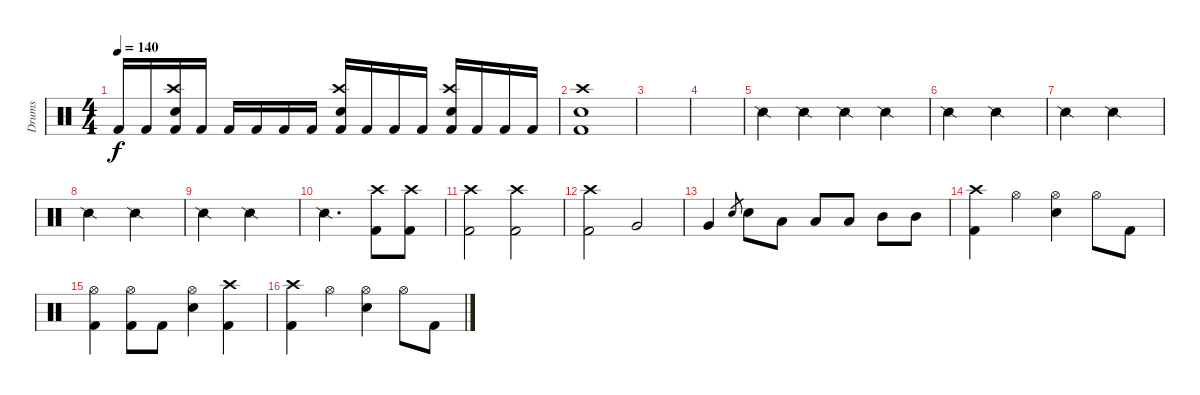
\track ("Drums" "Drums") {instrument percussion}
\staff {score}
\articulation defaults
\ts (4 4)
\tempo 140
\clef neutral
\ks c "Kick (hit) 2".16{dy f} "Kick (hit) 2".16
("Crash high (hit)" "Electric Snare (hit)" "Kick (hit) 2").16 "Kick (hit) 2".16 "Kick (hit) 2".16 "Kick (hit) 2".16 "Kick (hit) 2".16 "Kick (hit) 2".16 ("Crash high (hit)" "Electric Snare (hit)" "Kick (hit) 2").16 "Kick (hit) 2".16 "Kick (hit) 2".16 "Kick (hit) 2".16 ("Crash high (hit)" "Electric Snare (hit)" "Kick (hit) 2").16 "Kick (hit) 2".16 "Kick (hit) 2".16 "Kick (hit) 2".16 |
("Crash high (hit)" "Electric Snare (hit)" "Kick (hit) 2").1 |
|
|
"Snare (side stick) 2".4 "Snare (side stick) 2".4 "Snare (side stick) 2".4 "Snare (side stick) 2".4 |
"Snare (side stick) 2".2 "Snare (side stick) 2".2 |
"Snare (side stick) 2".2 "Snare (side stick) 2".2 |
"Snare (side stick) 2".2 "Snare (side stick) 2".2 |
"Snare (side stick) 2".2 "Snare (side stick) 2".2 |
"Snare (side stick) 2".2{d} ("Crash high (hit)" "Kick (hit) 2").8 ("Crash high (hit)" "Kick (hit) 2").8 |
("Crash high (hit)" "Kick (hit) 2").2 ("Crash high (hit)" "Kick (hit) 2").2 |
("Crash high (hit)" "Kick (hit) 2").2 "Very Low Tom (hit)".2 |
"Very Low Tom (hit)".4 "Electric Snare (hit)".8{gr} "Electric Snare (hit)".8 "Low Tom (hit)".8 "Low Tom (hit)".8 "Low Tom (hit)".8 "Mid Tom (hit)".8 "Mid Tom (hit)".8 |
("Crash high (hit)" "Kick (hit) 2").4 "Hi-Hat (open)".4 ("Hi-Hat (open)" "Electric Snare (hit)").4 "Hi-Hat (open)".8 "Kick (hit) 2".8 |
("Hi-Hat (open)" "Kick (hit) 2").4 ("Hi-Hat (open)" "Kick (hit) 2").8 "Kick (hit) 2".8 ("Hi-Hat (open)" "Electric Snare (hit)").4 ("Crash high (hit)" "Kick (hit) 2").4 |
("Crash high (hit)" "Kick (hit) 2").4 "Hi-Hat (open)".4 ("Hi-Hat (open)" "Electric Snare (hit)").4 "Hi-Hat (open)".8 "Kick (hit) 2".8
